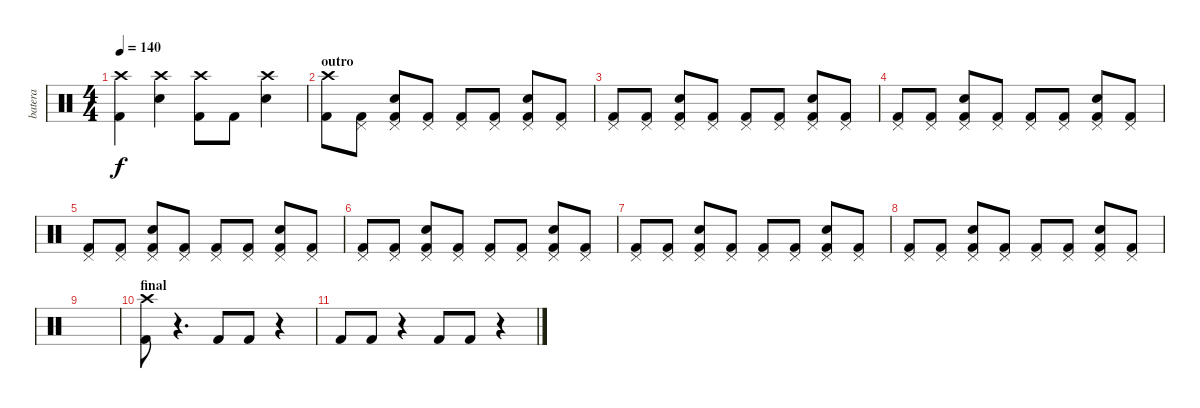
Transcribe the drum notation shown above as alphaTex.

\track ("batera" "batera") {instrument percussion}
\staff {score}
\articulation defaults
\ts (4 4)
\tempo 140
\clef neutral
\ks c
("Crash high (hit)" "Kick (hit) 2").4{dy f} ("Crash high (hit)" "Snare (hit) 2").4 ("Crash high (hit)" "Kick (hit) 2").8 "Kick (hit) 2".8 ("Crash high (hit)" "Snare (hit) 2").4 |
\section ("" "outro")
("Crash high (hit)" "Kick (hit) 2").8 ("Kick (hit) 2" "Pedal Hi-Hat (hit)").8 ("Snare (hit) 2" "Kick (hit) 2" "Pedal Hi-Hat (hit)").8 ("Kick (hit) 2" "Pedal Hi-Hat (hit)").8 ("Kick (hit) 2" "Pedal Hi-Hat (hit)").8 ("Kick (hit) 2" "Pedal Hi-Hat (hit)").8 ("Snare (hit) 2" "Kick (hit) 2" "Pedal Hi-Hat (hit)").8 ("Kick (hit) 2" "Pedal Hi-Hat (hit)").8 |
("Kick (hit) 2" "Pedal Hi-Hat (hit)").8 ("Kick (hit) 2" "Pedal Hi-Hat (hit)").8 ("Snare (hit) 2" "Kick (hit) 2" "Pedal Hi-Hat (hit)").8 ("Kick (hit) 2" "Pedal Hi-Hat (hit)").8 ("Kick (hit) 2" "Pedal Hi-Hat (hit)").8 ("Kick (hit) 2" "Pedal Hi-Hat (hit)").8 ("Snare (hit) 2" "Kick (hit) 2" "Pedal Hi-Hat (hit)").8 ("Kick (hit) 2" "Pedal Hi-Hat (hit)").8 |
("Kick (hit) 2" "Pedal Hi-Hat (hit)").8 ("Kick (hit) 2" "Pedal Hi-Hat (hit)").8 ("Snare (hit) 2" "Kick (hit) 2" "Pedal Hi-Hat (hit)").8 ("Kick (hit) 2" "Pedal Hi-Hat (hit)").8 ("Kick (hit) 2" "Pedal Hi-Hat (hit)").8 ("Kick (hit) 2" "Pedal Hi-Hat (hit)").8 ("Snare (hit) 2" "Kick (hit) 2" "Pedal Hi-Hat (hit)").8 ("Kick (hit) 2" "Pedal Hi-Hat (hit)").8 |
("Kick (hit) 2" "Pedal Hi-Hat (hit)").8 ("Kick (hit) 2" "Pedal Hi-Hat (hit)").8 ("Snare (hit) 2" "Kick (hit) 2" "Pedal Hi-Hat (hit)").8 ("Kick (hit) 2" "Pedal Hi-Hat (hit)").8 ("Kick (hit) 2" "Pedal Hi-Hat (hit)").8 ("Kick (hit) 2" "Pedal Hi-Hat (hit)").8 ("Snare (hit) 2" "Kick (hit) 2" "Pedal Hi-Hat (hit)").8 ("Kick (hit) 2" "Pedal Hi-Hat (hit)").8 |
("Kick (hit) 2" "Pedal Hi-Hat (hit)").8 ("Kick (hit) 2" "Pedal Hi-Hat (hit)").8 ("Snare (hit) 2" "Kick (hit) 2" "Pedal Hi-Hat (hit)").8 ("Kick (hit) 2" "Pedal Hi-Hat (hit)").8 ("Kick (hit) 2" "Pedal Hi-Hat (hit)").8 ("Kick (hit) 2" "Pedal Hi-Hat (hit)").8 ("Snare (hit) 2" "Kick (hit) 2" "Pedal Hi-Hat (hit)").8 ("Kick (hit) 2" "Pedal Hi-Hat (hit)").8 |
("Kick (hit) 2" "Pedal Hi-Hat (hit)").8 ("Kick (hit) 2" "Pedal Hi-Hat (hit)").8 ("Snare (hit) 2" "Kick (hit) 2" "Pedal Hi-Hat (hit)").8 ("Kick (hit) 2" "Pedal Hi-Hat (hit)").8 ("Kick (hit) 2" "Pedal Hi-Hat (hit)").8 ("Kick (hit) 2" "Pedal Hi-Hat (hit)").8 ("Snare (hit) 2" "Kick (hit) 2" "Pedal Hi-Hat (hit)").8 ("Kick (hit) 2" "Pedal Hi-Hat (hit)").8 |
("Kick (hit) 2" "Pedal Hi-Hat (hit)").8 ("Kick (hit) 2" "Pedal Hi-Hat (hit)").8 ("Snare (hit) 2" "Kick (hit) 2" "Pedal Hi-Hat (hit)").8 ("Kick (hit) 2" "Pedal Hi-Hat (hit)").8 ("Kick (hit) 2" "Pedal Hi-Hat (hit)").8 ("Kick (hit) 2" "Pedal Hi-Hat (hit)").8 ("Snare (hit) 2" "Kick (hit) 2" "Pedal Hi-Hat (hit)").8 ("Kick (hit) 2" "Pedal Hi-Hat (hit)").8 |
|
\section ("" "final")
("Crash high (hit)" "Kick (hit) 2").8 r.4{d} "Kick (hit) 2".8 "Kick (hit) 2".8 r.4 |
"Kick (hit) 2".8 "Kick (hit) 2".8 r.4 "Kick (hit) 2".8 "Kick (hit) 2".8 r.4
